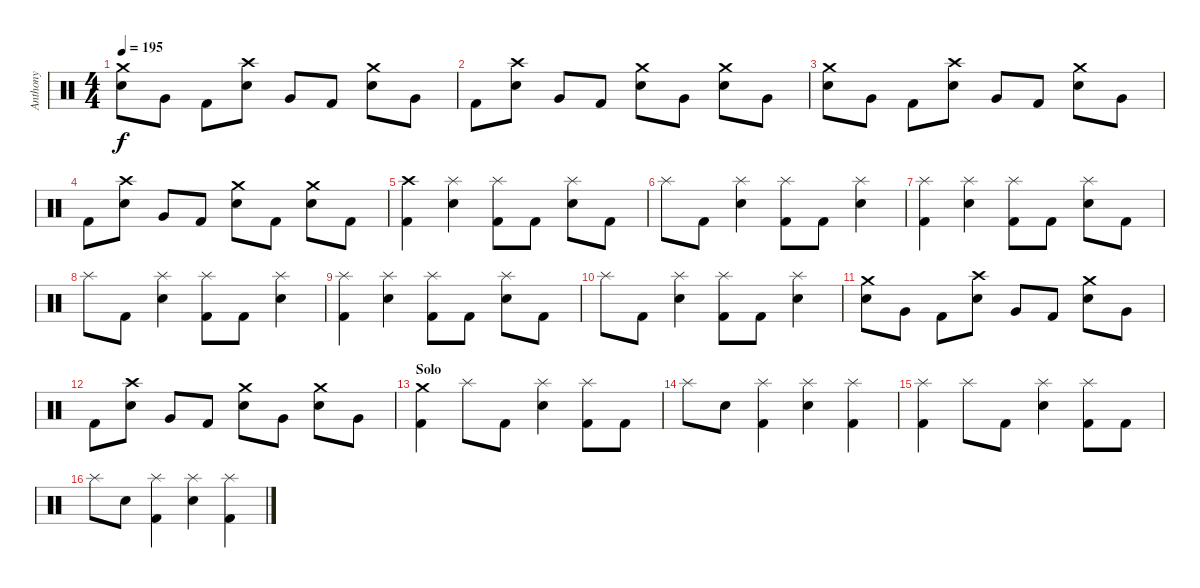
\track ("Anthony" "Anthony") {instrument percussion}
\staff {score}
\articulation defaults
\ts (4 4)
\tempo 195
\clef neutral
\ks c
("Crash medium (hit)" "Electric Snare (hit)").8{dy f} "Very Low Tom (hit)".8 "Kick (hit) 2".8 ("Crash high (hit)" "Electric Snare (hit)").8 "Very Low Tom (hit)".8 "Kick (hit) 2".8 ("Crash medium (hit)" "Electric Snare (hit)").8 "Very Low Tom (hit)".8 |
"Kick (hit) 2".8 ("Crash high (hit)" "Electric Snare (hit)").8 "Very Low Tom (hit)".8 "Kick (hit) 2".8 ("Crash medium (hit)" "Electric Snare (hit)").8 "Very Low Tom (hit)".8 ("Crash medium (hit)" "Electric Snare (hit)").8 "Very Low Tom (hit)".8 |
("Crash medium (hit)" "Electric Snare (hit)").8 "Very Low Tom (hit)".8 "Kick (hit) 2".8 ("Crash high (hit)" "Electric Snare (hit)").8 "Very Low Tom (hit)".8 "Kick (hit) 2".8 ("Crash medium (hit)" "Electric Snare (hit)").8 "Very Low Tom (hit)".8 |
"Kick (hit) 2".8 ("Crash high (hit)" "Electric Snare (hit)").8 "Very Low Tom (hit)".8 "Kick (hit) 2".8 ("Crash medium (hit)" "Electric Snare (hit)").8 "Kick (hit) 2".8 ("Crash medium (hit)" "Electric Snare (hit)").8 "Kick (hit) 2".8 |
("Crash high (hit)" "Kick (hit) 2").4 ("Splash (hit)" "Electric Snare (hit)").4 ("Splash (hit)" "Kick (hit) 2").8 "Kick (hit) 2".8 ("Splash (hit)" "Electric Snare (hit)").8 "Kick (hit) 2".8 |
"Splash (hit)".8 "Kick (hit) 2".8 ("Splash (hit)" "Electric Snare (hit)").4 ("Splash (hit)" "Kick (hit) 2").8 "Kick (hit) 2".8 ("Splash (hit)" "Electric Snare (hit)").4 |
("Splash (hit)" "Kick (hit) 2").4 ("Splash (hit)" "Electric Snare (hit)").4 ("Splash (hit)" "Kick (hit) 2").8 "Kick (hit) 2".8 ("Splash (hit)" "Electric Snare (hit)").8 "Kick (hit) 2".8 |
"Splash (hit)".8 "Kick (hit) 2".8 ("Splash (hit)" "Electric Snare (hit)").4 ("Splash (hit)" "Kick (hit) 2").8 "Kick (hit) 2".8 ("Splash (hit)" "Electric Snare (hit)").4 |
("Splash (hit)" "Kick (hit) 2").4 ("Splash (hit)" "Electric Snare (hit)").4 ("Splash (hit)" "Kick (hit) 2").8 "Kick (hit) 2".8 ("Splash (hit)" "Electric Snare (hit)").8 "Kick (hit) 2".8 |
"Splash (hit)".8 "Kick (hit) 2".8 ("Splash (hit)" "Electric Snare (hit)").4 ("Splash (hit)" "Kick (hit) 2").8 "Kick (hit) 2".8 ("Splash (hit)" "Electric Snare (hit)").4 |
("Crash medium (hit)" "Electric Snare (hit)").8 "Very Low Tom (hit)".8 "Kick (hit) 2".8 ("Crash high (hit)" "Electric Snare (hit)").8 "Very Low Tom (hit)".8 "Kick (hit) 2".8 ("Crash medium (hit)" "Electric Snare (hit)").8 "Very Low Tom (hit)".8 |
"Kick (hit) 2".8 ("Crash high (hit)" "Electric Snare (hit)").8 "Very Low Tom (hit)".8 "Kick (hit) 2".8 ("Crash medium (hit)" "Electric Snare (hit)").8 "Very Low Tom (hit)".8 ("Crash medium (hit)" "Electric Snare (hit)").8 "Very Low Tom (hit)".8 |
\section ("" "Solo")
("Crash medium (hit)" "Kick (hit) 2").4 "Splash (hit)".8 "Kick (hit) 2".8 ("Splash (hit)" "Electric Snare (hit)").4 ("Splash (hit)" "Kick (hit) 2").8 "Kick (hit) 2".8 |
"Splash (hit)".8 "Electric Snare (hit)".8 ("Splash (hit)" "Kick (hit) 2").4 ("Splash (hit)" "Electric Snare (hit)").4 ("Splash (hit)" "Kick (hit) 2").4 |
("Splash (hit)" "Kick (hit) 2").4 "Splash (hit)".8 "Kick (hit) 2".8 ("Splash (hit)" "Electric Snare (hit)").4 ("Splash (hit)" "Kick (hit) 2").8 "Kick (hit) 2".8 |
"Splash (hit)".8 "Electric Snare (hit)".8 ("Splash (hit)" "Kick (hit) 2").4 ("Splash (hit)" "Electric Snare (hit)").4 ("Splash (hit)" "Kick (hit) 2").4
